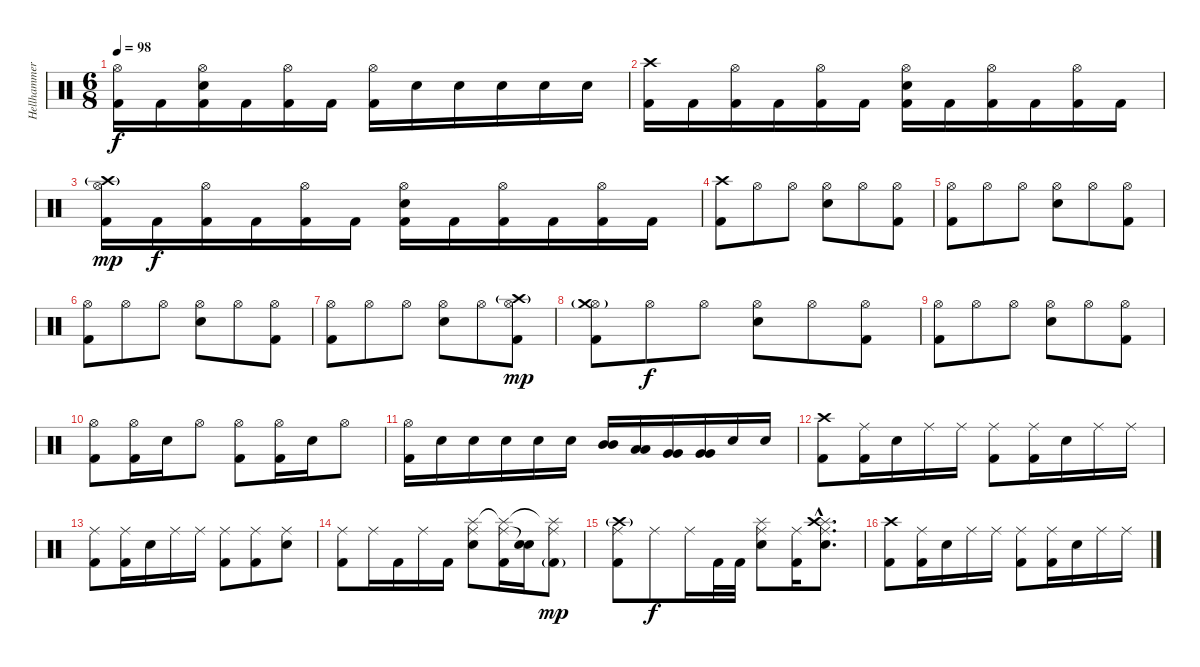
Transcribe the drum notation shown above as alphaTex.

\track ("Hellhammer (Drums)" "Hellhammer") {instrument percussion}
\staff {score}
\articulation defaults
\ts (6 8)
\tempo 98
\clef neutral
\ks c
("Kick (hit) 2" "Hi-Hat (open)").16{dy f} "Kick (hit) 2".16 ("Kick (hit) 2" "Electric Snare (hit)" "Hi-Hat (open)").16 "Kick (hit) 2".16 ("Kick (hit) 2" "Hi-Hat (open)").16 "Kick (hit) 2".16 ("Kick (hit) 2" "Hi-Hat (open)").16 "Electric Snare (hit)".16 "Electric Snare (hit)".16 "Electric Snare (hit)".16 "Electric Snare (hit)".16 "Electric Snare (hit)".16 |
("Kick (hit) 2" "Crash high (hit)").16 "Kick (hit) 2".16 ("Kick (hit) 2" "Hi-Hat (open)").16 "Kick (hit) 2".16 ("Kick (hit) 2" "Hi-Hat (open)").16 "Kick (hit) 2".16 ("Kick (hit) 2" "Electric Snare (hit)" "Hi-Hat (open)").16 "Kick (hit) 2".16 ("Kick (hit) 2" "Hi-Hat (open)").16 "Kick (hit) 2".16 ("Kick (hit) 2" "Hi-Hat (open)").16 "Kick (hit) 2".16 |
("Kick (hit) 2" "Hi-Hat (open)" "Crash high (hit)"{g}).16{dy mp} "Kick (hit) 2".16{dy f} ("Kick (hit) 2" "Hi-Hat (open)").16 "Kick (hit) 2".16 ("Kick (hit) 2" "Hi-Hat (open)").16 "Kick (hit) 2".16 ("Kick (hit) 2" "Electric Snare (hit)" "Hi-Hat (open)").16 "Kick (hit) 2".16 ("Kick (hit) 2" "Hi-Hat (open)").16 "Kick (hit) 2".16 ("Kick (hit) 2" "Hi-Hat (open)").16 "Kick (hit) 2".16 |
("Kick (hit) 2" "Crash high (hit)").8 "Hi-Hat (open)".8 "Hi-Hat (open)".8 ("Electric Snare (hit)" "Hi-Hat (open)").8 "Hi-Hat (open)".8 ("Kick (hit) 2" "Hi-Hat (open)").8 |
("Kick (hit) 2" "Hi-Hat (open)").8 "Hi-Hat (open)".8 "Hi-Hat (open)".8 ("Electric Snare (hit)" "Hi-Hat (open)").8 "Hi-Hat (open)".8 ("Kick (hit) 2" "Hi-Hat (open)").8 |
("Kick (hit) 2" "Hi-Hat (open)").8 "Hi-Hat (open)".8 "Hi-Hat (open)".8 ("Electric Snare (hit)" "Hi-Hat (open)").8 "Hi-Hat (open)".8 ("Kick (hit) 2" "Hi-Hat (open)").8 |
("Kick (hit) 2" "Hi-Hat (open)").8 "Hi-Hat (open)".8 "Hi-Hat (open)".8 ("Electric Snare (hit)" "Hi-Hat (open)").8 "Hi-Hat (open)".8 ("Kick (hit) 2" "Hi-Hat (open)" "Crash high (hit)"{g}).8{dy mp} |
("Kick (hit) 2" "Hi-Hat (open)" "Crash medium (hit)"{g}).8 "Hi-Hat (open)".8{dy f} "Hi-Hat (open)".8 ("Electric Snare (hit)" "Hi-Hat (open)").8 "Hi-Hat (open)".8 ("Kick (hit) 2" "Hi-Hat (open)").8 |
("Kick (hit) 2" "Hi-Hat (open)").8 "Hi-Hat (open)".8 "Hi-Hat (open)".8 ("Electric Snare (hit)" "Hi-Hat (open)").8 "Hi-Hat (open)".8 ("Kick (hit) 2" "Hi-Hat (open)").8 |
("Kick (hit) 2" "Hi-Hat (open)").8 ("Kick (hit) 2" "Hi-Hat (open)").16 "Electric Snare (hit)".16 "Hi-Hat (open)".8 ("Kick (hit) 2" "Hi-Hat (open)").8 ("Kick (hit) 2" "Hi-Hat (open)").16 "Electric Snare (hit)".16 "Hi-Hat (open)".8 |
("Kick (hit) 2" "Hi-Hat (open)").16 "Electric Snare (hit)".16 "Electric Snare (hit)".16 "Electric Snare (hit)".16 "Electric Snare (hit)".16 "Electric Snare (hit)".16 ("Mid Tom (hit)" "Mid Tom (hit)").16 ("Low Tom (hit)" "Low Tom (hit)").16 ("Very Low Tom (hit)" "Very Low Tom (hit)").16 ("Very Low Tom (hit)" "Very Low Tom (hit)").16 "Electric Snare (hit)".16 "Electric Snare (hit)".16 |
("Kick (hit) 2" "Crash high (hit)").8 ("Kick (hit) 2" "Ride (middle)").16 "Electric Snare (hit)".16 "Ride (middle)".16 "Ride (middle)".16 ("Kick (hit) 2" "Ride (middle)").8 ("Kick (hit) 2" "Ride (middle)").16 "Electric Snare (hit)".16 "Ride (middle)".16 "Ride (middle)".16 |
("Kick (hit) 2" "Ride (middle)").8 ("Kick (hit) 2" "Ride (middle)").16 "Electric Snare (hit)".16 "Ride (middle)".16 "Ride (middle)".16 ("Kick (hit) 2" "Ride (middle)").8 ("Kick (hit) 2" "Ride (middle)").8 ("Electric Snare (hit)" "Ride (middle)").8 |
("Kick (hit) 2" "Ride (middle)").8 "Ride (middle)".16 "Kick (hit) 2".16 "Ride (middle)".16 "Kick (hit) 2".16 ("Electric Snare (hit)" "Ride (middle)" "Splash (hit)").8 ("Kick (hit) 2" "Ride (middle)" "Splash (hit)"{t}).16 ("Electric Snare (hit)" "Snare (hit)"{t}).16 ("Kick (hit) 2"{g} "Ride (middle)" "Splash (hit)"{t}).8{dy mp} |
("Kick (hit) 2" "Ride (middle)" "Crash high (hit)"{g}).8 "Ride (middle)".8{dy f} "Ride (middle)".16 "Kick (hit) 2".32 "Kick (hit) 2".32 ("Electric Snare (hit)" "Ride (middle)" "Splash (hit)").8 ("Kick (hit) 2" "Ride (middle)").16 ("Electric Snare (hit)"{hac} "Ride (middle)"{hac} "Splash (hit)"{hac} "Crash high (hit)"{hac}).8{d} |
("Kick (hit) 2" "Crash high (hit)").8 ("Kick (hit) 2" "Ride (middle)").16 "Electric Snare (hit)".16 "Ride (middle)".16 "Ride (middle)".16 ("Kick (hit) 2" "Ride (middle)").8 ("Kick (hit) 2" "Ride (middle)").16 "Electric Snare (hit)".16 "Ride (middle)".16 "Ride (middle)".16
